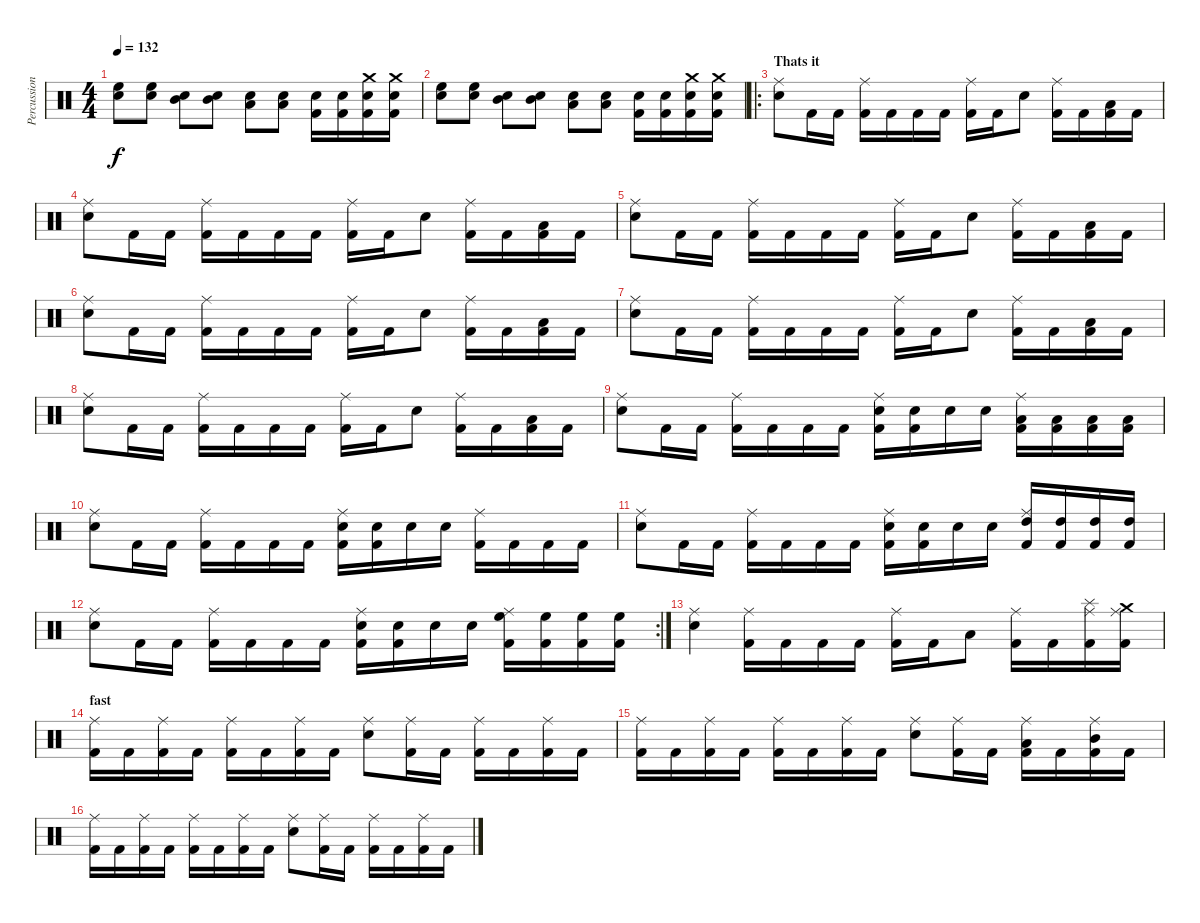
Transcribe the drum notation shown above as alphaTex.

\track ("Percussion" "Percussion") {instrument percussion}
\staff {score}
\articulation defaults
\ts (4 4)
\tempo 132
\clef neutral
\ks c
("High Floor Tom (hit)" "Snare (hit) 2").8{dy f} ("High Floor Tom (hit)" "Snare (hit) 2").8 ("Mid Tom (hit)" "Snare (hit) 2").8 ("Mid Tom (hit)" "Snare (hit) 2").8 ("Low Tom (hit)" "Snare (hit) 2").8 ("Low Tom (hit)" "Snare (hit) 2").8 ("Snare (hit) 2" "Kick (hit) 2").16 ("Snare (hit) 2" "Kick (hit) 2").16 ("Crash medium (hit)" "Snare (hit) 2" "Kick (hit) 2").16 ("Crash medium (hit)" "Snare (hit) 2" "Kick (hit) 2").16 |
("High Floor Tom (hit)" "Snare (hit) 2").8 ("High Floor Tom (hit)" "Snare (hit) 2").8 ("Mid Tom (hit)" "Snare (hit) 2").8 ("Mid Tom (hit)" "Snare (hit) 2").8 ("Low Tom (hit)" "Snare (hit) 2").8 ("Low Tom (hit)" "Snare (hit) 2").8 ("Snare (hit) 2" "Kick (hit) 2").16 ("Snare (hit) 2" "Kick (hit) 2").16 ("Crash medium (hit)" "Snare (hit) 2" "Kick (hit) 2").16 ("Crash medium (hit)" "Snare (hit) 2" "Kick (hit) 2").16 |
\ro
\section ("" "Thats it")
("Ride (middle)" "Snare (hit) 2").8 "Kick (hit) 2".16 "Kick (hit) 2".16 ("Ride (middle)" "Kick (hit) 2").16 "Kick (hit) 2".16 "Kick (hit) 2".16 "Kick (hit) 2".16 ("Ride (middle)" "Kick (hit) 2").16 "Kick (hit) 2".16 "Snare (hit) 2".8 ("Ride (middle)" "Kick (hit) 2").16 "Kick (hit) 2".16 ("Low Tom (hit)" "Kick (hit) 2").16 "Kick (hit) 2".16 |
("Ride (middle)" "Snare (hit) 2").8 "Kick (hit) 2".16 "Kick (hit) 2".16 ("Ride (middle)" "Kick (hit) 2").16 "Kick (hit) 2".16 "Kick (hit) 2".16 "Kick (hit) 2".16 ("Ride (middle)" "Kick (hit) 2").16 "Kick (hit) 2".16 "Snare (hit) 2".8 ("Ride (middle)" "Kick (hit) 2").16 "Kick (hit) 2".16 ("Low Tom (hit)" "Kick (hit) 2").16 "Kick (hit) 2".16 |
("Ride (middle)" "Snare (hit) 2").8 "Kick (hit) 2".16 "Kick (hit) 2".16 ("Ride (middle)" "Kick (hit) 2").16 "Kick (hit) 2".16 "Kick (hit) 2".16 "Kick (hit) 2".16 ("Ride (middle)" "Kick (hit) 2").16 "Kick (hit) 2".16 "Snare (hit) 2".8 ("Ride (middle)" "Kick (hit) 2").16 "Kick (hit) 2".16 ("Low Tom (hit)" "Kick (hit) 2").16 "Kick (hit) 2".16 |
("Ride (middle)" "Snare (hit) 2").8 "Kick (hit) 2".16 "Kick (hit) 2".16 ("Ride (middle)" "Kick (hit) 2").16 "Kick (hit) 2".16 "Kick (hit) 2".16 "Kick (hit) 2".16 ("Ride (middle)" "Kick (hit) 2").16 "Kick (hit) 2".16 "Snare (hit) 2".8 ("Ride (middle)" "Kick (hit) 2").16 "Kick (hit) 2".16 ("Low Tom (hit)" "Kick (hit) 2").16 "Kick (hit) 2".16 |
("Ride (middle)" "Snare (hit) 2").8 "Kick (hit) 2".16 "Kick (hit) 2".16 ("Ride (middle)" "Kick (hit) 2").16 "Kick (hit) 2".16 "Kick (hit) 2".16 "Kick (hit) 2".16 ("Ride (middle)" "Kick (hit) 2").16 "Kick (hit) 2".16 "Snare (hit) 2".8 ("Ride (middle)" "Kick (hit) 2").16 "Kick (hit) 2".16 ("Low Tom (hit)" "Kick (hit) 2").16 "Kick (hit) 2".16 |
("Ride (middle)" "Snare (hit) 2").8 "Kick (hit) 2".16 "Kick (hit) 2".16 ("Ride (middle)" "Kick (hit) 2").16 "Kick (hit) 2".16 "Kick (hit) 2".16 "Kick (hit) 2".16 ("Ride (middle)" "Kick (hit) 2").16 "Kick (hit) 2".16 "Snare (hit) 2".8 ("Ride (middle)" "Kick (hit) 2").16 "Kick (hit) 2".16 ("Low Tom (hit)" "Kick (hit) 2").16 "Kick (hit) 2".16 |
("Ride (middle)" "Snare (hit) 2").8 "Kick (hit) 2".16 "Kick (hit) 2".16 ("Ride (middle)" "Kick (hit) 2").16 "Kick (hit) 2".16 "Kick (hit) 2".16 "Kick (hit) 2".16 ("Ride (middle)" "Snare (hit) 2" "Kick (hit) 2").16 ("Snare (hit) 2" "Kick (hit) 2").16 "Snare (hit) 2".16 "Snare (hit) 2".16 ("Ride (middle)" "Low Tom (hit)" "Kick (hit) 2").16 ("Low Tom (hit)" "Kick (hit) 2").16 ("Low Tom (hit)" "Kick (hit) 2").16 ("Low Tom (hit)" "Kick (hit) 2").16 |
("Ride (middle)" "Snare (hit) 2").8 "Kick (hit) 2".16 "Kick (hit) 2".16 ("Ride (middle)" "Kick (hit) 2").16 "Kick (hit) 2".16 "Kick (hit) 2".16 "Kick (hit) 2".16 ("Ride (middle)" "Snare (hit) 2" "Kick (hit) 2").16 ("Snare (hit) 2" "Kick (hit) 2").16 "Snare (hit) 2".16 "Snare (hit) 2".16 ("Ride (middle)" "Kick (hit) 2").16 "Kick (hit) 2".16 "Kick (hit) 2".16 "Kick (hit) 2".16 |
("Ride (middle)" "Snare (hit) 2").8 "Kick (hit) 2".16 "Kick (hit) 2".16 ("Ride (middle)" "Kick (hit) 2").16 "Kick (hit) 2".16 "Kick (hit) 2".16 "Kick (hit) 2".16 ("Ride (middle)" "Snare (hit) 2" "Kick (hit) 2").16 ("Snare (hit) 2" "Kick (hit) 2").16 "Snare (hit) 2".16 "Snare (hit) 2".16 ("Ride (middle)" "High Tom (hit)" "Kick (hit) 2").16 ("High Tom (hit)" "Kick (hit) 2").16 ("High Tom (hit)" "Kick (hit) 2").16 ("High Tom (hit)" "Kick (hit) 2").16 |
\rc 2
("Ride (middle)" "Snare (hit) 2").8 "Kick (hit) 2".16 "Kick (hit) 2".16 ("Ride (middle)" "Kick (hit) 2").16 "Kick (hit) 2".16 "Kick (hit) 2".16 "Kick (hit) 2".16 ("Ride (middle)" "Snare (hit) 2" "Kick (hit) 2").16 ("Snare (hit) 2" "Kick (hit) 2").16 "Snare (hit) 2".16 "Snare (hit) 2".16 ("Ride (middle)" "High Floor Tom (hit)" "Kick (hit) 2").16 ("High Floor Tom (hit)" "Kick (hit) 2").16 ("High Floor Tom (hit)" "Kick (hit) 2").16 ("High Floor Tom (hit)" "Kick (hit) 2").16 |
("Ride (middle)" "Snare (hit) 2").4 ("Ride (middle)" "Kick (hit) 2").16 "Kick (hit) 2".16 "Kick (hit) 2".16 "Kick (hit) 2".16 ("Ride (middle)" "Kick (hit) 2").16 "Kick (hit) 2".16 "Low Tom (hit)".8 ("Ride (middle)" "Kick (hit) 2").16 "Kick (hit) 2".16 ("Splash (hit)" "Ride (middle)" "Kick (hit) 2").16 ("Ride (middle)" "Crash medium (hit)" "Kick (hit) 2").16 |
\section ("" "fast")
("Ride (middle)" "Kick (hit) 2").16 "Kick (hit) 2".16 ("Ride (middle)" "Kick (hit) 2").16 "Kick (hit) 2".16 ("Ride (middle)" "Kick (hit) 2").16 "Kick (hit) 2".16 ("Ride (middle)" "Kick (hit) 2").16 "Kick (hit) 2".16 ("Ride (middle)" "Snare (hit) 2").8 ("Ride (middle)" "Kick (hit) 2").16 "Kick (hit) 2".16 ("Ride (middle)" "Kick (hit) 2").16 "Kick (hit) 2".16 ("Ride (middle)" "Kick (hit) 2").16 "Kick (hit) 2".16 |
("Ride (middle)" "Kick (hit) 2").16 "Kick (hit) 2".16 ("Ride (middle)" "Kick (hit) 2").16 "Kick (hit) 2".16 ("Ride (middle)" "Kick (hit) 2").16 "Kick (hit) 2".16 ("Ride (middle)" "Kick (hit) 2").16 "Kick (hit) 2".16 ("Ride (middle)" "Snare (hit) 2").8 ("Ride (middle)" "Kick (hit) 2").16 "Kick (hit) 2".16 ("Ride (middle)" "Low Tom (hit)" "Kick (hit) 2").16 "Kick (hit) 2".16 ("Ride (middle)" "Mid Tom (hit)" "Kick (hit) 2").16 "Kick (hit) 2".16 |
("Ride (middle)" "Kick (hit) 2").16 "Kick (hit) 2".16 ("Ride (middle)" "Kick (hit) 2").16 "Kick (hit) 2".16 ("Ride (middle)" "Kick (hit) 2").16 "Kick (hit) 2".16 ("Ride (middle)" "Kick (hit) 2").16 "Kick (hit) 2".16 ("Ride (middle)" "Snare (hit) 2").8 ("Ride (middle)" "Kick (hit) 2").16 "Kick (hit) 2".16 ("Ride (middle)" "Kick (hit) 2").16 "Kick (hit) 2".16 ("Ride (middle)" "Kick (hit) 2").16 "Kick (hit) 2".16
